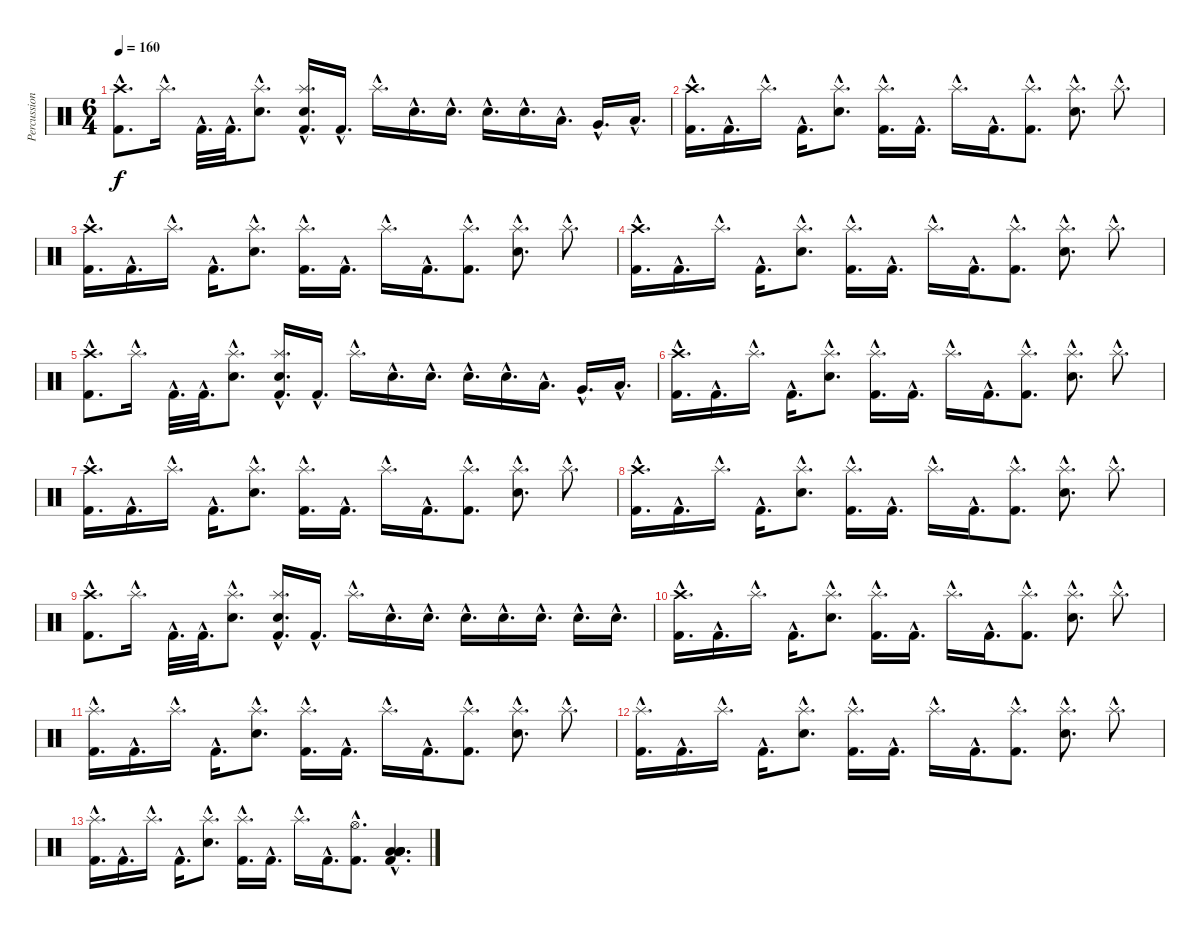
\track ("Percussion" "Percussion") {instrument percussion}
\staff {score}
\articulation defaults
\ts (6 4)
\tempo 160
\clef neutral
\ks c
("Crash high (hit)"{hac} "Kick (hit) 2"{hac}).8{d dy f} "Splash (hit)"{hac}.16{d} "Kick (hit) 2"{hac}.32{d} "Kick (hit) 2"{hac}.32{d} ("Splash (hit)"{hac} "Electric Snare (hit)"{hac}).8{d} ("Splash (hit)"{hac} "Electric Snare (hit)"{hac} "Kick (hit) 2"{hac}).16{d} "Kick (hit) 2"{hac}.16{d} "Splash (hit)"{hac}.16{d} "Electric Snare (hit)"{hac}.16{d} "Electric Snare (hit)"{hac}.16{d} "Electric Snare (hit)"{hac}.16{d} "Electric Snare (hit)"{hac}.16{d} "Low Tom (hit)"{hac}.16{d} "Very Low Tom (hit)"{hac}.16{d} "Low Floor Tom (hit)"{hac}.16{d} |
("Crash high (hit)"{hac} "Kick (hit) 2"{hac}).16{d} "Kick (hit) 2"{hac}.16{d} "Splash (hit)"{hac}.16{d} "Kick (hit) 2"{hac}.16{d} ("Splash (hit)"{hac} "Electric Snare (hit)"{hac}).8{d} ("Splash (hit)"{hac} "Kick (hit) 2"{hac}).16{d} "Kick (hit) 2"{hac}.16{d} "Splash (hit)"{hac}.16{d} "Kick (hit) 2"{hac}.16{d} ("Splash (hit)"{hac} "Kick (hit) 2"{hac}).8{d} ("Splash (hit)"{hac} "Electric Snare (hit)"{hac}).8{d} "Splash (hit)"{hac}.8{d} |
("Crash high (hit)"{hac} "Kick (hit) 2"{hac}).16{d} "Kick (hit) 2"{hac}.16{d} "Splash (hit)"{hac}.16{d} "Kick (hit) 2"{hac}.16{d} ("Splash (hit)"{hac} "Electric Snare (hit)"{hac}).8{d} ("Splash (hit)"{hac} "Kick (hit) 2"{hac}).16{d} "Kick (hit) 2"{hac}.16{d} "Splash (hit)"{hac}.16{d} "Kick (hit) 2"{hac}.16{d} ("Splash (hit)"{hac} "Kick (hit) 2"{hac}).8{d} ("Splash (hit)"{hac} "Electric Snare (hit)"{hac}).8{d} "Splash (hit)"{hac}.8{d} |
("Crash high (hit)"{hac} "Kick (hit) 2"{hac}).16{d} "Kick (hit) 2"{hac}.16{d} "Splash (hit)"{hac}.16{d} "Kick (hit) 2"{hac}.16{d} ("Splash (hit)"{hac} "Electric Snare (hit)"{hac}).8{d} ("Splash (hit)"{hac} "Kick (hit) 2"{hac}).16{d} "Kick (hit) 2"{hac}.16{d} "Splash (hit)"{hac}.16{d} "Kick (hit) 2"{hac}.16{d} ("Splash (hit)"{hac} "Kick (hit) 2"{hac}).8{d} ("Splash (hit)"{hac} "Electric Snare (hit)"{hac}).8{d} "Splash (hit)"{hac}.8{d} |
("Crash high (hit)"{hac} "Kick (hit) 2"{hac}).8{d} "Splash (hit)"{hac}.16{d} "Kick (hit) 2"{hac}.32{d} "Kick (hit) 2"{hac}.32{d} ("Splash (hit)"{hac} "Electric Snare (hit)"{hac}).8{d} ("Splash (hit)"{hac} "Electric Snare (hit)"{hac} "Kick (hit) 2"{hac}).16{d} "Kick (hit) 2"{hac}.16{d} "Splash (hit)"{hac}.16{d} "Electric Snare (hit)"{hac}.16{d} "Electric Snare (hit)"{hac}.16{d} "Electric Snare (hit)"{hac}.16{d} "Electric Snare (hit)"{hac}.16{d} "Low Tom (hit)"{hac}.16{d} "Very Low Tom (hit)"{hac}.16{d} "Low Floor Tom (hit)"{hac}.16{d} |
("Crash high (hit)"{hac} "Kick (hit) 2"{hac}).16{d} "Kick (hit) 2"{hac}.16{d} "Splash (hit)"{hac}.16{d} "Kick (hit) 2"{hac}.16{d} ("Splash (hit)"{hac} "Electric Snare (hit)"{hac}).8{d} ("Splash (hit)"{hac} "Kick (hit) 2"{hac}).16{d} "Kick (hit) 2"{hac}.16{d} "Splash (hit)"{hac}.16{d} "Kick (hit) 2"{hac}.16{d} ("Splash (hit)"{hac} "Kick (hit) 2"{hac}).8{d} ("Splash (hit)"{hac} "Electric Snare (hit)"{hac}).8{d} "Splash (hit)"{hac}.8{d} |
("Crash high (hit)"{hac} "Kick (hit) 2"{hac}).16{d} "Kick (hit) 2"{hac}.16{d} "Splash (hit)"{hac}.16{d} "Kick (hit) 2"{hac}.16{d} ("Splash (hit)"{hac} "Electric Snare (hit)"{hac}).8{d} ("Splash (hit)"{hac} "Kick (hit) 2"{hac}).16{d} "Kick (hit) 2"{hac}.16{d} "Splash (hit)"{hac}.16{d} "Kick (hit) 2"{hac}.16{d} ("Splash (hit)"{hac} "Kick (hit) 2"{hac}).8{d} ("Splash (hit)"{hac} "Electric Snare (hit)"{hac}).8{d} "Splash (hit)"{hac}.8{d} |
("Crash high (hit)"{hac} "Kick (hit) 2"{hac}).16{d} "Kick (hit) 2"{hac}.16{d} "Splash (hit)"{hac}.16{d} "Kick (hit) 2"{hac}.16{d} ("Splash (hit)"{hac} "Electric Snare (hit)"{hac}).8{d} ("Splash (hit)"{hac} "Kick (hit) 2"{hac}).16{d} "Kick (hit) 2"{hac}.16{d} "Splash (hit)"{hac}.16{d} "Kick (hit) 2"{hac}.16{d} ("Splash (hit)"{hac} "Kick (hit) 2"{hac}).8{d} ("Splash (hit)"{hac} "Electric Snare (hit)"{hac}).8{d} "Splash (hit)"{hac}.8{d} |
("Crash high (hit)"{hac} "Kick (hit) 2"{hac}).8{d} "Splash (hit)"{hac}.16{d} "Kick (hit) 2"{hac}.32{d} "Kick (hit) 2"{hac}.32{d} ("Splash (hit)"{hac} "Electric Snare (hit)"{hac}).8{d} ("Splash (hit)"{hac} "Electric Snare (hit)"{hac} "Kick (hit) 2"{hac}).16{d} "Kick (hit) 2"{hac}.16{d} "Splash (hit)"{hac}.16{d} "Electric Snare (hit)"{hac}.16{d} "Electric Snare (hit)"{hac}.16{d} "Electric Snare (hit)"{hac}.16{d} "Electric Snare (hit)"{hac}.16{d} "Electric Snare (hit)"{hac}.16{d} "Electric Snare (hit)"{hac}.16{d} "Electric Snare (hit)"{hac}.16{d} |
("Crash high (hit)"{hac} "Kick (hit) 2"{hac}).16{d} "Kick (hit) 2"{hac}.16{d} "Splash (hit)"{hac}.16{d} "Kick (hit) 2"{hac}.16{d} ("Splash (hit)"{hac} "Electric Snare (hit)"{hac}).8{d} ("Splash (hit)"{hac} "Kick (hit) 2"{hac}).16{d} "Kick (hit) 2"{hac}.16{d} "Splash (hit)"{hac}.16{d} "Kick (hit) 2"{hac}.16{d} ("Splash (hit)"{hac} "Kick (hit) 2"{hac}).8{d} ("Splash (hit)"{hac} "Electric Snare (hit)"{hac}).8{d} "Splash (hit)"{hac}.8{d} |
("Splash (hit)"{hac} "Kick (hit) 2"{hac}).16{d} "Kick (hit) 2"{hac}.16{d} "Splash (hit)"{hac}.16{d} "Kick (hit) 2"{hac}.16{d} ("Splash (hit)"{hac} "Electric Snare (hit)"{hac}).8{d} ("Splash (hit)"{hac} "Kick (hit) 2"{hac}).16{d} "Kick (hit) 2"{hac}.16{d} "Splash (hit)"{hac}.16{d} "Kick (hit) 2"{hac}.16{d} ("Splash (hit)"{hac} "Kick (hit) 2"{hac}).8{d} ("Splash (hit)"{hac} "Electric Snare (hit)"{hac}).8{d} "Splash (hit)"{hac}.8{d} |
("Splash (hit)"{hac} "Kick (hit) 2"{hac}).16{d} "Kick (hit) 2"{hac}.16{d} "Splash (hit)"{hac}.16{d} "Kick (hit) 2"{hac}.16{d} ("Splash (hit)"{hac} "Electric Snare (hit)"{hac}).8{d} ("Splash (hit)"{hac} "Kick (hit) 2"{hac}).16{d} "Kick (hit) 2"{hac}.16{d} "Splash (hit)"{hac}.16{d} "Kick (hit) 2"{hac}.16{d} ("Splash (hit)"{hac} "Kick (hit) 2"{hac}).8{d} ("Splash (hit)"{hac} "Electric Snare (hit)"{hac}).8{d} "Splash (hit)"{hac}.8{d} |
("Splash (hit)"{hac} "Kick (hit) 2"{hac}).16{d} "Kick (hit) 2"{hac}.16{d} "Splash (hit)"{hac}.16{d} "Kick (hit) 2"{hac}.16{d} ("Splash (hit)"{hac} "Electric Snare (hit)"{hac}).8{d} ("Splash (hit)"{hac} "Kick (hit) 2"{hac}).16{d} "Kick (hit) 2"{hac}.16{d} "Splash (hit)"{hac}.16{d} "Kick (hit) 2"{hac}.16{d} ("Hi-Hat (open)"{hac} "Kick (hit) 2"{hac}).8{d} ("Low Floor Tom (hit)"{hac} "Low Floor Tom (hit)"{hac} "Low Floor Tom (hit)"{hac} "Low Floor Tom (hit)"{hac} "Kick (hit) 2"{hac}).4{d}
